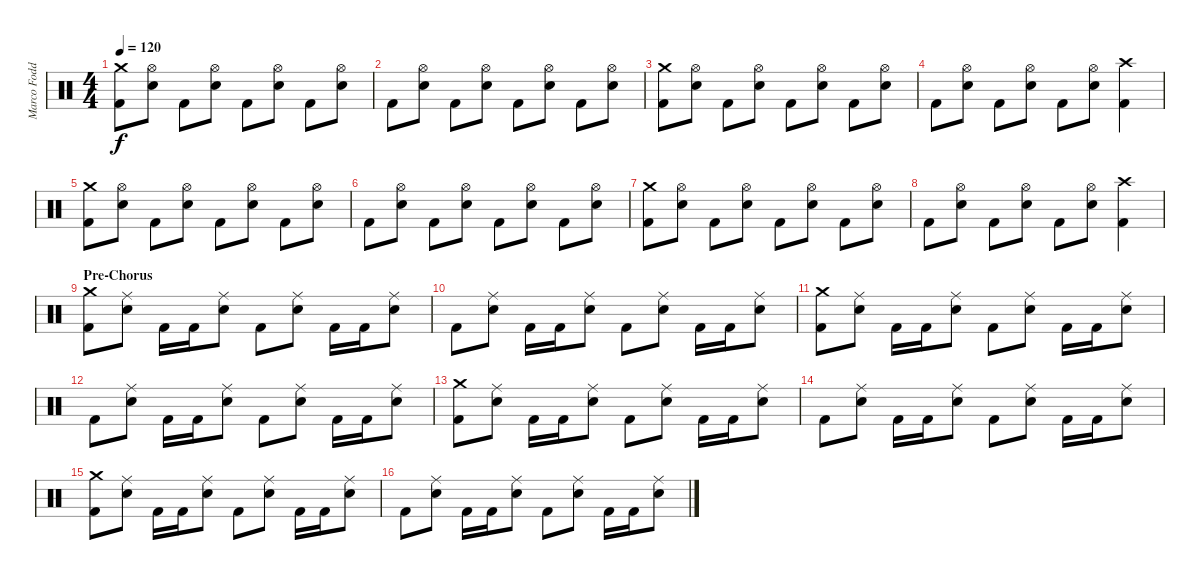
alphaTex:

\track ("Marco Foddis " "Marco Fodd") {instrument percussion}
\staff {score}
\articulation defaults
\ts (4 4)
\tempo 120
\clef neutral
\ks c
("Crash medium (hit)" "Kick (hit) 2").8{dy f} ("Hi-Hat (open)" "Electric Snare (hit)").8 "Kick (hit) 2".8 ("Hi-Hat (open)" "Electric Snare (hit)").8 "Kick (hit) 2".8 ("Hi-Hat (open)" "Electric Snare (hit)").8 "Kick (hit) 2".8 ("Hi-Hat (open)" "Electric Snare (hit)").8 |
"Kick (hit) 2".8 ("Hi-Hat (open)" "Electric Snare (hit)").8 "Kick (hit) 2".8 ("Hi-Hat (open)" "Electric Snare (hit)").8 "Kick (hit) 2".8 ("Hi-Hat (open)" "Electric Snare (hit)").8 "Kick (hit) 2".8 ("Hi-Hat (open)" "Electric Snare (hit)").8 |
("Crash medium (hit)" "Kick (hit) 2").8 ("Hi-Hat (open)" "Electric Snare (hit)").8 "Kick (hit) 2".8 ("Hi-Hat (open)" "Electric Snare (hit)").8 "Kick (hit) 2".8 ("Hi-Hat (open)" "Electric Snare (hit)").8 "Kick (hit) 2".8 ("Hi-Hat (open)" "Electric Snare (hit)").8 |
"Kick (hit) 2".8 ("Hi-Hat (open)" "Electric Snare (hit)").8 "Kick (hit) 2".8 ("Hi-Hat (open)" "Electric Snare (hit)").8 "Kick (hit) 2".8 ("Hi-Hat (open)" "Electric Snare (hit)").8 ("Crash high (hit)" "Kick (hit) 2").4 |
("Crash medium (hit)" "Kick (hit) 2").8 ("Hi-Hat (open)" "Electric Snare (hit)").8 "Kick (hit) 2".8 ("Hi-Hat (open)" "Electric Snare (hit)").8 "Kick (hit) 2".8 ("Hi-Hat (open)" "Electric Snare (hit)").8 "Kick (hit) 2".8 ("Hi-Hat (open)" "Electric Snare (hit)").8 |
"Kick (hit) 2".8 ("Hi-Hat (open)" "Electric Snare (hit)").8 "Kick (hit) 2".8 ("Hi-Hat (open)" "Electric Snare (hit)").8 "Kick (hit) 2".8 ("Hi-Hat (open)" "Electric Snare (hit)").8 "Kick (hit) 2".8 ("Hi-Hat (open)" "Electric Snare (hit)").8 |
("Crash medium (hit)" "Kick (hit) 2").8 ("Hi-Hat (open)" "Electric Snare (hit)").8 "Kick (hit) 2".8 ("Hi-Hat (open)" "Electric Snare (hit)").8 "Kick (hit) 2".8 ("Hi-Hat (open)" "Electric Snare (hit)").8 "Kick (hit) 2".8 ("Hi-Hat (open)" "Electric Snare (hit)").8 |
"Kick (hit) 2".8 ("Hi-Hat (open)" "Electric Snare (hit)").8 "Kick (hit) 2".8 ("Hi-Hat (open)" "Electric Snare (hit)").8 "Kick (hit) 2".8 ("Hi-Hat (open)" "Electric Snare (hit)").8 ("Crash high (hit)" "Kick (hit) 2").4 |
\section ("" "Pre-Chorus")
("Crash medium (hit)" "Kick (hit) 2").8 ("Ride (middle)" "Electric Snare (hit)").8 "Kick (hit) 2".16 "Kick (hit) 2".16 ("Ride (middle)" "Electric Snare (hit)").8 "Kick (hit) 2".8 ("Ride (middle)" "Electric Snare (hit)").8 "Kick (hit) 2".16 "Kick (hit) 2".16 ("Ride (middle)" "Electric Snare (hit)").8 |
"Kick (hit) 2".8 ("Ride (middle)" "Electric Snare (hit)").8 "Kick (hit) 2".16 "Kick (hit) 2".16 ("Ride (middle)" "Electric Snare (hit)").8 "Kick (hit) 2".8 ("Ride (middle)" "Electric Snare (hit)").8 "Kick (hit) 2".16 "Kick (hit) 2".16 ("Ride (middle)" "Electric Snare (hit)").8 |
("Crash medium (hit)" "Kick (hit) 2").8 ("Ride (middle)" "Electric Snare (hit)").8 "Kick (hit) 2".16 "Kick (hit) 2".16 ("Ride (middle)" "Electric Snare (hit)").8 "Kick (hit) 2".8 ("Ride (middle)" "Electric Snare (hit)").8 "Kick (hit) 2".16 "Kick (hit) 2".16 ("Ride (middle)" "Electric Snare (hit)").8 |
"Kick (hit) 2".8 ("Ride (middle)" "Electric Snare (hit)").8 "Kick (hit) 2".16 "Kick (hit) 2".16 ("Ride (middle)" "Electric Snare (hit)").8 "Kick (hit) 2".8 ("Ride (middle)" "Electric Snare (hit)").8 "Kick (hit) 2".16 "Kick (hit) 2".16 ("Ride (middle)" "Electric Snare (hit)").8 |
("Crash medium (hit)" "Kick (hit) 2").8 ("Ride (middle)" "Electric Snare (hit)").8 "Kick (hit) 2".16 "Kick (hit) 2".16 ("Ride (middle)" "Electric Snare (hit)").8 "Kick (hit) 2".8 ("Ride (middle)" "Electric Snare (hit)").8 "Kick (hit) 2".16 "Kick (hit) 2".16 ("Ride (middle)" "Electric Snare (hit)").8 |
"Kick (hit) 2".8 ("Ride (middle)" "Electric Snare (hit)").8 "Kick (hit) 2".16 "Kick (hit) 2".16 ("Ride (middle)" "Electric Snare (hit)").8 "Kick (hit) 2".8 ("Ride (middle)" "Electric Snare (hit)").8 "Kick (hit) 2".16 "Kick (hit) 2".16 ("Ride (middle)" "Electric Snare (hit)").8 |
("Crash medium (hit)" "Kick (hit) 2").8 ("Ride (middle)" "Electric Snare (hit)").8 "Kick (hit) 2".16 "Kick (hit) 2".16 ("Ride (middle)" "Electric Snare (hit)").8 "Kick (hit) 2".8 ("Ride (middle)" "Electric Snare (hit)").8 "Kick (hit) 2".16 "Kick (hit) 2".16 ("Ride (middle)" "Electric Snare (hit)").8 |
"Kick (hit) 2".8 ("Ride (middle)" "Electric Snare (hit)").8 "Kick (hit) 2".16 "Kick (hit) 2".16 ("Ride (middle)" "Electric Snare (hit)").8 "Kick (hit) 2".8 ("Ride (middle)" "Electric Snare (hit)").8 "Kick (hit) 2".16 "Kick (hit) 2".16 ("Ride (middle)" "Electric Snare (hit)").8
